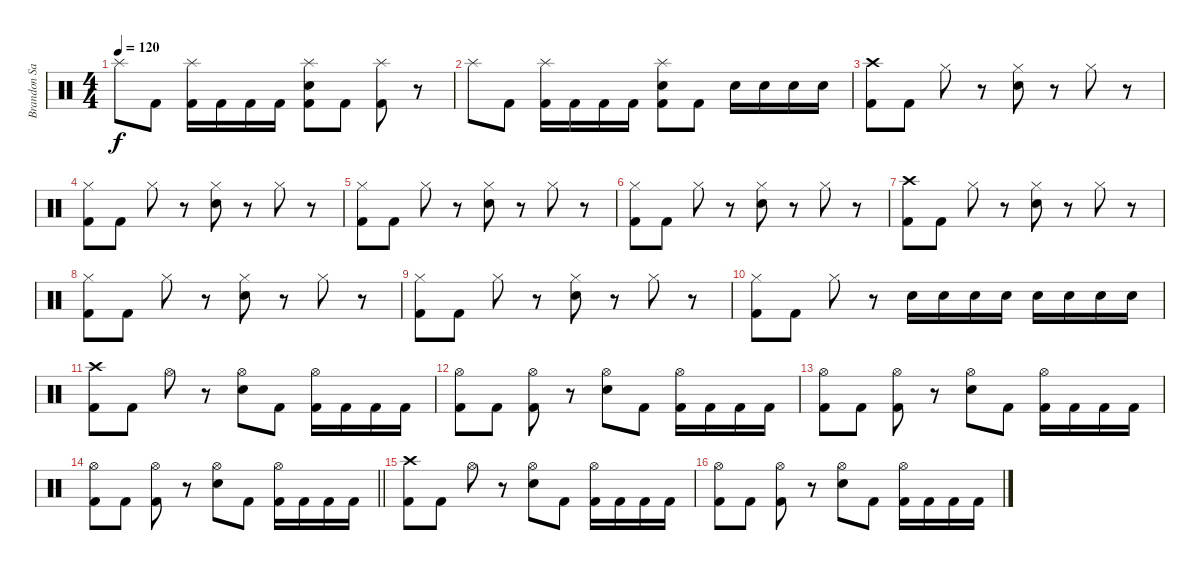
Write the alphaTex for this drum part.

\track ("Brandon Saller" "Brandon Sa") {instrument percussion}
\staff {score}
\articulation defaults
\ts (4 4)
\tempo 120
\clef neutral
\ks c "Splash (hit)".8{dy f} "Kick (hit) 2".8
("Splash (hit)" "Kick (hit) 2").16 "Kick (hit) 2".16 "Kick (hit) 2".16 "Kick (hit) 2".16 ("Splash (hit)" "Electric Snare (hit)" "Kick (hit) 2").8 "Kick (hit) 2".8 ("Splash (hit)" "Kick (hit) 2").8 r.8 |
"Splash (hit)".8 "Kick (hit) 2".8 ("Splash (hit)" "Kick (hit) 2").16 "Kick (hit) 2".16 "Kick (hit) 2".16 "Kick (hit) 2".16 ("Splash (hit)" "Electric Snare (hit)" "Kick (hit) 2").8 "Kick (hit) 2".8 "Electric Snare (hit)".16 "Electric Snare (hit)".16 "Electric Snare (hit)".16 "Electric Snare (hit)".16 |
("Crash high (hit)" "Kick (hit) 2").8 "Kick (hit) 2".8 "Hi-Hat (closed)".8 r.8 ("Hi-Hat (closed)" "Electric Snare (hit)").8 r.8 "Hi-Hat (closed)".8 r.8 |
("Hi-Hat (closed)" "Kick (hit) 2").8 "Kick (hit) 2".8 "Hi-Hat (closed)".8 r.8 ("Hi-Hat (closed)" "Electric Snare (hit)").8 r.8 "Hi-Hat (closed)".8 r.8 |
("Hi-Hat (closed)" "Kick (hit) 2").8 "Kick (hit) 2".8 "Hi-Hat (closed)".8 r.8 ("Hi-Hat (closed)" "Electric Snare (hit)").8 r.8 "Hi-Hat (closed)".8 r.8 |
("Hi-Hat (closed)" "Kick (hit) 2").8 "Kick (hit) 2".8 "Hi-Hat (closed)".8 r.8 ("Hi-Hat (closed)" "Electric Snare (hit)").8 r.8 "Hi-Hat (closed)".8 r.8 |
("Crash high (hit)" "Kick (hit) 2").8 "Kick (hit) 2".8 "Hi-Hat (closed)".8 r.8 ("Hi-Hat (closed)" "Electric Snare (hit)").8 r.8 "Hi-Hat (closed)".8 r.8 |
("Hi-Hat (closed)" "Kick (hit) 2").8 "Kick (hit) 2".8 "Hi-Hat (closed)".8 r.8 ("Hi-Hat (closed)" "Electric Snare (hit)").8 r.8 "Hi-Hat (closed)".8 r.8 |
("Hi-Hat (closed)" "Kick (hit) 2").8 "Kick (hit) 2".8 "Hi-Hat (closed)".8 r.8 ("Hi-Hat (closed)" "Electric Snare (hit)").8 r.8 "Hi-Hat (closed)".8 r.8 |
("Hi-Hat (closed)" "Kick (hit) 2").8 "Kick (hit) 2".8 "Hi-Hat (closed)".8 r.8 "Electric Snare (hit)".16 "Electric Snare (hit)".16 "Electric Snare (hit)".16 "Electric Snare (hit)".16 "Electric Snare (hit)".16 "Electric Snare (hit)".16 "Electric Snare (hit)".16 "Electric Snare (hit)".16 |
("Crash high (hit)" "Kick (hit) 2").8 "Kick (hit) 2".8 "Hi-Hat (open)".8 r.8 ("Hi-Hat (open)" "Electric Snare (hit)").8 "Kick (hit) 2".8 ("Hi-Hat (open)" "Kick (hit) 2").16 "Kick (hit) 2".16 "Kick (hit) 2".16 "Kick (hit) 2".16 |
("Hi-Hat (open)" "Kick (hit) 2").8 "Kick (hit) 2".8 ("Hi-Hat (open)" "Kick (hit) 2").8 r.8 ("Hi-Hat (open)" "Electric Snare (hit)").8 "Kick (hit) 2".8 ("Hi-Hat (open)" "Kick (hit) 2").16 "Kick (hit) 2".16 "Kick (hit) 2".16 "Kick (hit) 2".16 |
("Hi-Hat (open)" "Kick (hit) 2").8 "Kick (hit) 2".8 ("Hi-Hat (open)" "Kick (hit) 2").8 r.8 ("Hi-Hat (open)" "Electric Snare (hit)").8 "Kick (hit) 2".8 ("Hi-Hat (open)" "Kick (hit) 2").16 "Kick (hit) 2".16 "Kick (hit) 2".16 "Kick (hit) 2".16 |
\barLineRight lightlight
("Hi-Hat (open)" "Kick (hit) 2").8 "Kick (hit) 2".8 ("Hi-Hat (open)" "Kick (hit) 2").8 r.8 ("Hi-Hat (open)" "Electric Snare (hit)").8 "Kick (hit) 2".8 ("Hi-Hat (open)" "Kick (hit) 2").16 "Kick (hit) 2".16 "Kick (hit) 2".16 "Kick (hit) 2".16 |
("Crash high (hit)" "Kick (hit) 2").8 "Kick (hit) 2".8 "Hi-Hat (open)".8 r.8 ("Hi-Hat (open)" "Electric Snare (hit)").8 "Kick (hit) 2".8 ("Hi-Hat (open)" "Kick (hit) 2").16 "Kick (hit) 2".16 "Kick (hit) 2".16 "Kick (hit) 2".16 |
("Hi-Hat (open)" "Kick (hit) 2").8 "Kick (hit) 2".8 ("Hi-Hat (open)" "Kick (hit) 2").8 r.8 ("Hi-Hat (open)" "Electric Snare (hit)").8 "Kick (hit) 2".8 ("Hi-Hat (open)" "Kick (hit) 2").16 "Kick (hit) 2".16 "Kick (hit) 2".16 "Kick (hit) 2".16
